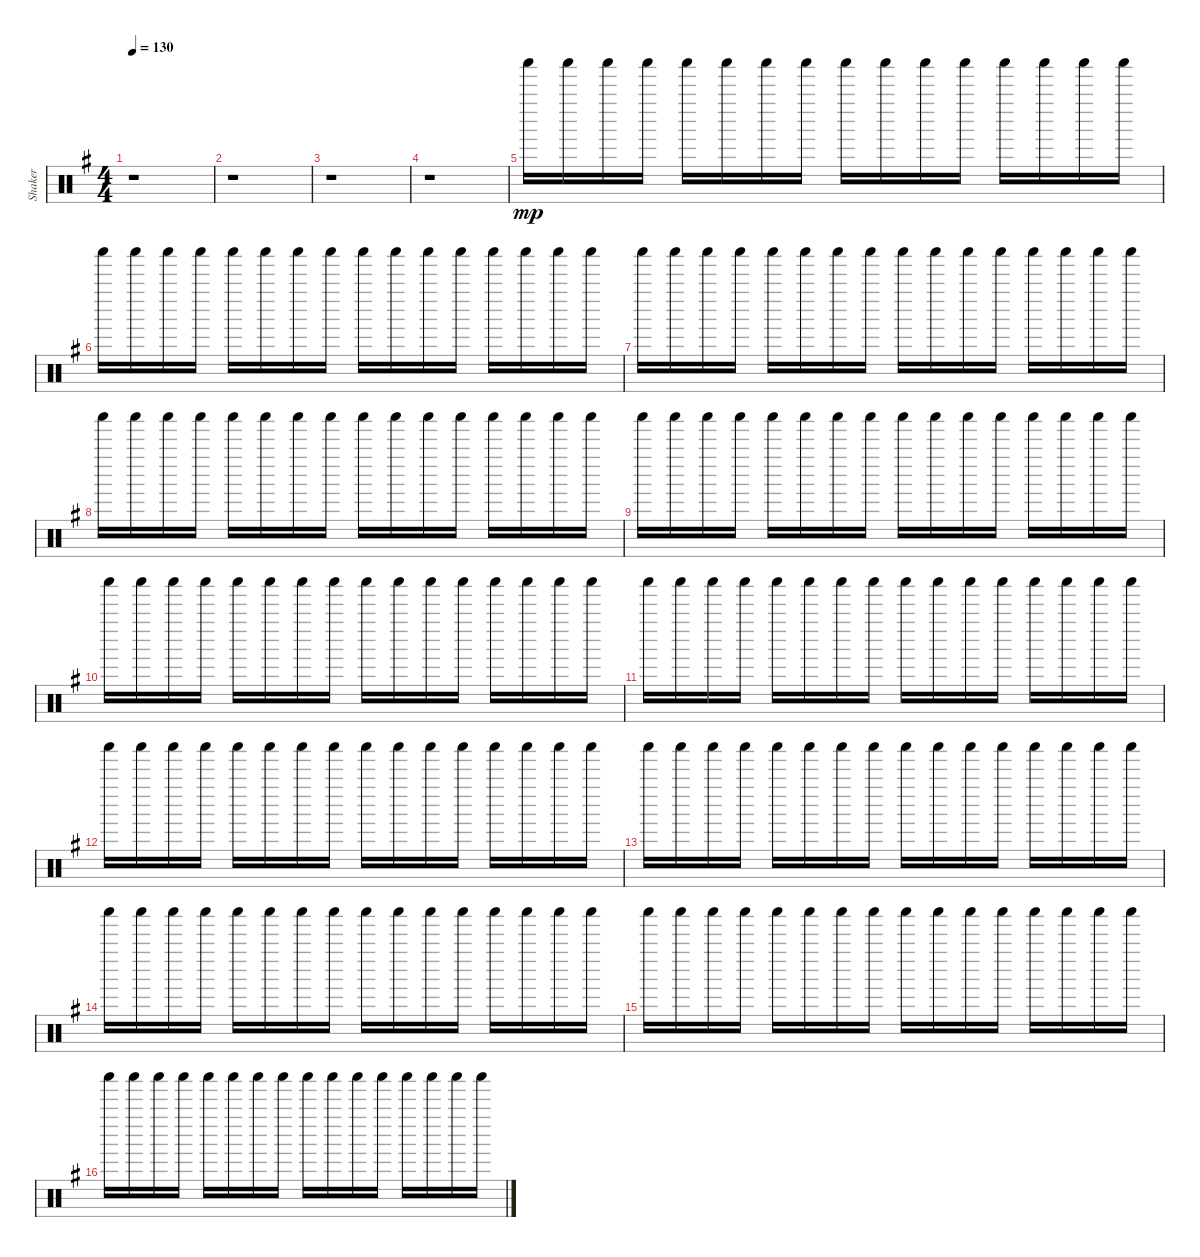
\track ("Shaker" "Shaker") {instrument percussion}
\staff {score}
\articulation defaults
\ts (4 4)
\tempo 130
\clef neutral
\ks g
r.1{dy mp} |
r.1 |
r.1 |
r.1 |
"Shaker (hit)".16 "Shaker (hit)".16 "Shaker (hit)".16 "Shaker (hit)".16 "Shaker (hit)".16 "Shaker (hit)".16 "Shaker (hit)".16 "Shaker (hit)".16 "Shaker (hit)".16 "Shaker (hit)".16 "Shaker (hit)".16 "Shaker (hit)".16 "Shaker (hit)".16 "Shaker (hit)".16 "Shaker (hit)".16 "Shaker (hit)".16 |
"Shaker (hit)".16 "Shaker (hit)".16 "Shaker (hit)".16 "Shaker (hit)".16 "Shaker (hit)".16 "Shaker (hit)".16 "Shaker (hit)".16 "Shaker (hit)".16 "Shaker (hit)".16 "Shaker (hit)".16 "Shaker (hit)".16 "Shaker (hit)".16 "Shaker (hit)".16 "Shaker (hit)".16 "Shaker (hit)".16 "Shaker (hit)".16 |
"Shaker (hit)".16 "Shaker (hit)".16 "Shaker (hit)".16 "Shaker (hit)".16 "Shaker (hit)".16 "Shaker (hit)".16 "Shaker (hit)".16 "Shaker (hit)".16 "Shaker (hit)".16 "Shaker (hit)".16 "Shaker (hit)".16 "Shaker (hit)".16 "Shaker (hit)".16 "Shaker (hit)".16 "Shaker (hit)".16 "Shaker (hit)".16 |
"Shaker (hit)".16 "Shaker (hit)".16 "Shaker (hit)".16 "Shaker (hit)".16 "Shaker (hit)".16 "Shaker (hit)".16 "Shaker (hit)".16 "Shaker (hit)".16 "Shaker (hit)".16 "Shaker (hit)".16 "Shaker (hit)".16 "Shaker (hit)".16 "Shaker (hit)".16 "Shaker (hit)".16 "Shaker (hit)".16 "Shaker (hit)".16 |
"Shaker (hit)".16 "Shaker (hit)".16 "Shaker (hit)".16 "Shaker (hit)".16 "Shaker (hit)".16 "Shaker (hit)".16 "Shaker (hit)".16 "Shaker (hit)".16 "Shaker (hit)".16 "Shaker (hit)".16 "Shaker (hit)".16 "Shaker (hit)".16 "Shaker (hit)".16 "Shaker (hit)".16 "Shaker (hit)".16 "Shaker (hit)".16 |
"Shaker (hit)".16 "Shaker (hit)".16 "Shaker (hit)".16 "Shaker (hit)".16 "Shaker (hit)".16 "Shaker (hit)".16 "Shaker (hit)".16 "Shaker (hit)".16 "Shaker (hit)".16 "Shaker (hit)".16 "Shaker (hit)".16 "Shaker (hit)".16 "Shaker (hit)".16 "Shaker (hit)".16 "Shaker (hit)".16 "Shaker (hit)".16 |
"Shaker (hit)".16 "Shaker (hit)".16 "Shaker (hit)".16 "Shaker (hit)".16 "Shaker (hit)".16 "Shaker (hit)".16 "Shaker (hit)".16 "Shaker (hit)".16 "Shaker (hit)".16 "Shaker (hit)".16 "Shaker (hit)".16 "Shaker (hit)".16 "Shaker (hit)".16 "Shaker (hit)".16 "Shaker (hit)".16 "Shaker (hit)".16 |
"Shaker (hit)".16 "Shaker (hit)".16 "Shaker (hit)".16 "Shaker (hit)".16 "Shaker (hit)".16 "Shaker (hit)".16 "Shaker (hit)".16 "Shaker (hit)".16 "Shaker (hit)".16 "Shaker (hit)".16 "Shaker (hit)".16 "Shaker (hit)".16 "Shaker (hit)".16 "Shaker (hit)".16 "Shaker (hit)".16 "Shaker (hit)".16 |
"Shaker (hit)".16 "Shaker (hit)".16 "Shaker (hit)".16 "Shaker (hit)".16 "Shaker (hit)".16 "Shaker (hit)".16 "Shaker (hit)".16 "Shaker (hit)".16 "Shaker (hit)".16 "Shaker (hit)".16 "Shaker (hit)".16 "Shaker (hit)".16 "Shaker (hit)".16 "Shaker (hit)".16 "Shaker (hit)".16 "Shaker (hit)".16 |
"Shaker (hit)".16 "Shaker (hit)".16 "Shaker (hit)".16 "Shaker (hit)".16 "Shaker (hit)".16 "Shaker (hit)".16 "Shaker (hit)".16 "Shaker (hit)".16 "Shaker (hit)".16 "Shaker (hit)".16 "Shaker (hit)".16 "Shaker (hit)".16 "Shaker (hit)".16 "Shaker (hit)".16 "Shaker (hit)".16 "Shaker (hit)".16 |
"Shaker (hit)".16 "Shaker (hit)".16 "Shaker (hit)".16 "Shaker (hit)".16 "Shaker (hit)".16 "Shaker (hit)".16 "Shaker (hit)".16 "Shaker (hit)".16 "Shaker (hit)".16 "Shaker (hit)".16 "Shaker (hit)".16 "Shaker (hit)".16 "Shaker (hit)".16 "Shaker (hit)".16 "Shaker (hit)".16 "Shaker (hit)".16 |
"Shaker (hit)".16 "Shaker (hit)".16 "Shaker (hit)".16 "Shaker (hit)".16 "Shaker (hit)".16 "Shaker (hit)".16 "Shaker (hit)".16 "Shaker (hit)".16 "Shaker (hit)".16 "Shaker (hit)".16 "Shaker (hit)".16 "Shaker (hit)".16 "Shaker (hit)".16 "Shaker (hit)".16 "Shaker (hit)".16 "Shaker (hit)".16
